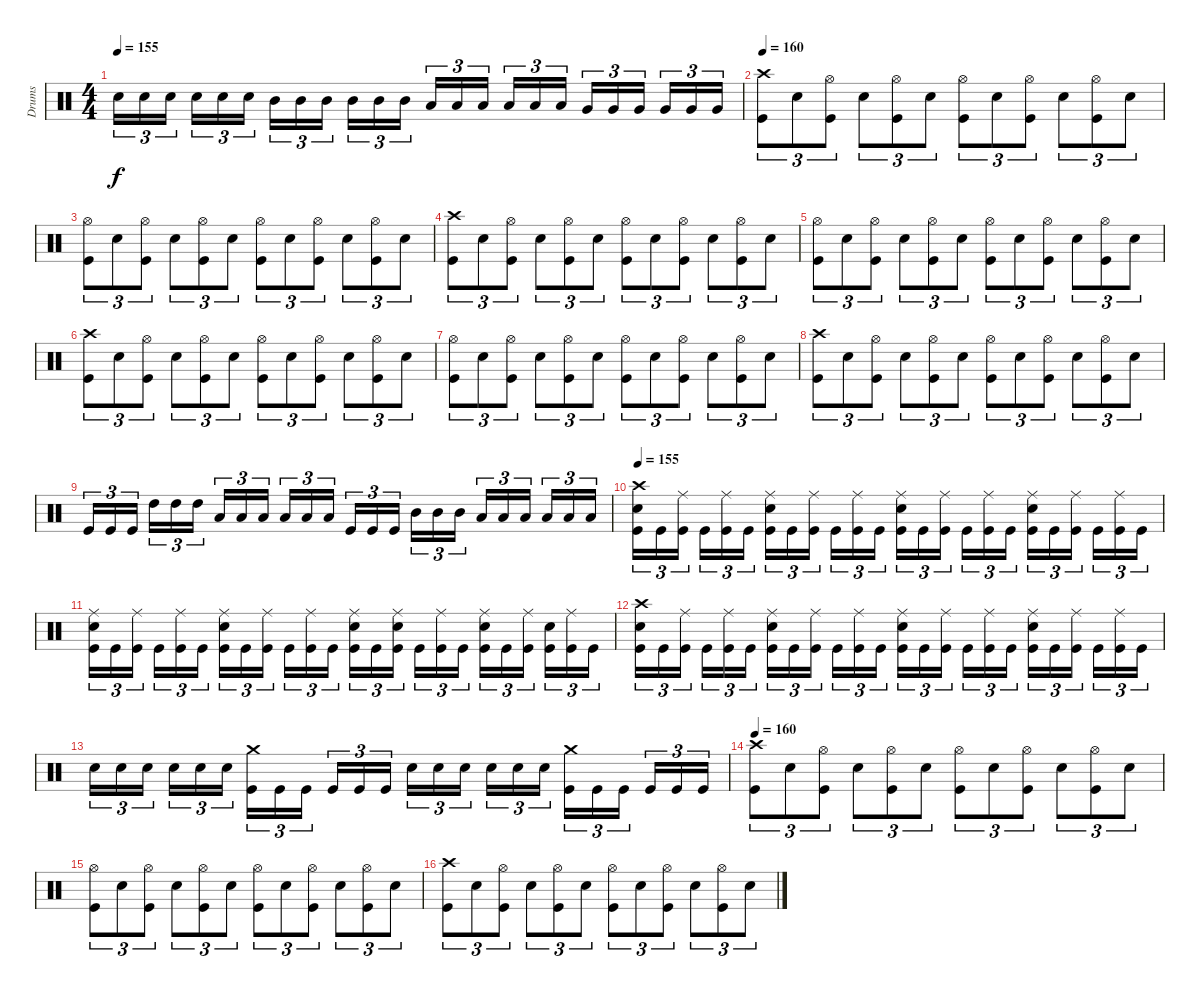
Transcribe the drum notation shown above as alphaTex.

\track ("Drums" "Drums") {instrument percussion}
\staff {score}
\articulation defaults
\ts (4 4)
\tempo 155
\clef neutral
\ks c "Electric Snare (hit)".16{tu (3 2) dy f} "Electric Snare (hit)".16{tu (3 2)} "Electric Snare (hit)".16{tu (3 2)} "Electric Snare (hit)".16{tu (3 2)} "Electric Snare (hit)".16{tu (3 2)} "Electric Snare (hit)".16{tu (3 2)} "Mid Tom (hit)".16{tu (3 2)} "Mid Tom (hit)".16{tu (3 2)} "Mid Tom (hit)".16{tu (3 2)} "Mid Tom (hit)".16{tu (3 2)} "Mid Tom (hit)".16{tu (3 2)} "Mid Tom (hit)".16{tu (3 2)} "Low Tom (hit)".16{tu (3 2)} "Low Tom (hit)".16{tu (3 2)} "Low Tom (hit)".16{tu (3 2)} "Low Tom (hit)".16{tu (3 2)} "Low Tom (hit)".16{tu (3 2)} "Low Tom (hit)".16{tu (3 2)} "Very Low Tom (hit)".16{tu (3 2)} "Very Low Tom (hit)".16{tu (3 2)} "Very Low Tom (hit)".16{tu (3 2)} "Very Low Tom (hit)".16{tu (3 2)} "Very Low Tom (hit)".16{tu (3 2)} "Very Low Tom (hit)".16{tu (3 2)}
|
\tempo 160
("Crash high (hit)" "Kick (hit)").8{tu (3 2)} "Electric Snare (hit)".8{tu (3 2)} ("Hi-Hat (open)" "Kick (hit)").8{tu (3 2)} "Electric Snare (hit)".8{tu (3 2)} ("Hi-Hat (open)" "Kick (hit)").8{tu (3 2)} "Electric Snare (hit)".8{tu (3 2)} ("Hi-Hat (open)" "Kick (hit)").8{tu (3 2)} "Electric Snare (hit)".8{tu (3 2)} ("Hi-Hat (open)" "Kick (hit)").8{tu (3 2)} "Electric Snare (hit)".8{tu (3 2)} ("Hi-Hat (open)" "Kick (hit)").8{tu (3 2)} "Electric Snare (hit)".8{tu (3 2)} |
("Hi-Hat (open)" "Kick (hit)").8{tu (3 2)} "Electric Snare (hit)".8{tu (3 2)} ("Hi-Hat (open)" "Kick (hit)").8{tu (3 2)} "Electric Snare (hit)".8{tu (3 2)} ("Hi-Hat (open)" "Kick (hit)").8{tu (3 2)} "Electric Snare (hit)".8{tu (3 2)} ("Hi-Hat (open)" "Kick (hit)").8{tu (3 2)} "Electric Snare (hit)".8{tu (3 2)} ("Hi-Hat (open)" "Kick (hit)").8{tu (3 2)} "Electric Snare (hit)".8{tu (3 2)} ("Hi-Hat (open)" "Kick (hit)").8{tu (3 2)} "Electric Snare (hit)".8{tu (3 2)} |
("Crash high (hit)" "Kick (hit)").8{tu (3 2)} "Electric Snare (hit)".8{tu (3 2)} ("Hi-Hat (open)" "Kick (hit)").8{tu (3 2)} "Electric Snare (hit)".8{tu (3 2)} ("Hi-Hat (open)" "Kick (hit)").8{tu (3 2)} "Electric Snare (hit)".8{tu (3 2)} ("Hi-Hat (open)" "Kick (hit)").8{tu (3 2)} "Electric Snare (hit)".8{tu (3 2)} ("Hi-Hat (open)" "Kick (hit)").8{tu (3 2)} "Electric Snare (hit)".8{tu (3 2)} ("Hi-Hat (open)" "Kick (hit)").8{tu (3 2)} "Electric Snare (hit)".8{tu (3 2)} |
("Hi-Hat (open)" "Kick (hit)").8{tu (3 2)} "Electric Snare (hit)".8{tu (3 2)} ("Hi-Hat (open)" "Kick (hit)").8{tu (3 2)} "Electric Snare (hit)".8{tu (3 2)} ("Hi-Hat (open)" "Kick (hit)").8{tu (3 2)} "Electric Snare (hit)".8{tu (3 2)} ("Hi-Hat (open)" "Kick (hit)").8{tu (3 2)} "Electric Snare (hit)".8{tu (3 2)} ("Hi-Hat (open)" "Kick (hit)").8{tu (3 2)} "Electric Snare (hit)".8{tu (3 2)} ("Hi-Hat (open)" "Kick (hit)").8{tu (3 2)} "Electric Snare (hit)".8{tu (3 2)} |
("Crash high (hit)" "Kick (hit)").8{tu (3 2)} "Electric Snare (hit)".8{tu (3 2)} ("Hi-Hat (open)" "Kick (hit)").8{tu (3 2)} "Electric Snare (hit)".8{tu (3 2)} ("Hi-Hat (open)" "Kick (hit)").8{tu (3 2)} "Electric Snare (hit)".8{tu (3 2)} ("Hi-Hat (open)" "Kick (hit)").8{tu (3 2)} "Electric Snare (hit)".8{tu (3 2)} ("Hi-Hat (open)" "Kick (hit)").8{tu (3 2)} "Electric Snare (hit)".8{tu (3 2)} ("Hi-Hat (open)" "Kick (hit)").8{tu (3 2)} "Electric Snare (hit)".8{tu (3 2)} |
("Hi-Hat (open)" "Kick (hit)").8{tu (3 2)} "Electric Snare (hit)".8{tu (3 2)} ("Hi-Hat (open)" "Kick (hit)").8{tu (3 2)} "Electric Snare (hit)".8{tu (3 2)} ("Hi-Hat (open)" "Kick (hit)").8{tu (3 2)} "Electric Snare (hit)".8{tu (3 2)} ("Hi-Hat (open)" "Kick (hit)").8{tu (3 2)} "Electric Snare (hit)".8{tu (3 2)} ("Hi-Hat (open)" "Kick (hit)").8{tu (3 2)} "Electric Snare (hit)".8{tu (3 2)} ("Hi-Hat (open)" "Kick (hit)").8{tu (3 2)} "Electric Snare (hit)".8{tu (3 2)} |
("Crash high (hit)" "Kick (hit)").8{tu (3 2)} "Electric Snare (hit)".8{tu (3 2)} ("Hi-Hat (open)" "Kick (hit)").8{tu (3 2)} "Electric Snare (hit)".8{tu (3 2)} ("Hi-Hat (open)" "Kick (hit)").8{tu (3 2)} "Electric Snare (hit)".8{tu (3 2)} ("Hi-Hat (open)" "Kick (hit)").8{tu (3 2)} "Electric Snare (hit)".8{tu (3 2)} ("Hi-Hat (open)" "Kick (hit)").8{tu (3 2)} "Electric Snare (hit)".8{tu (3 2)} ("Hi-Hat (open)" "Kick (hit)").8{tu (3 2)} "Electric Snare (hit)".8{tu (3 2)} |
"Kick (hit)".16{tu (3 2)} "Kick (hit)".16{tu (3 2)} "Kick (hit)".16{tu (3 2)} "High Tom (hit)".16{tu (3 2)} "High Tom (hit)".16{tu (3 2)} "High Tom (hit)".16{tu (3 2)} "Low Tom (hit)".16{tu (3 2)} "Low Tom (hit)".16{tu (3 2)} "Low Tom (hit)".16{tu (3 2)} "Low Tom (hit)".16{tu (3 2)} "Low Tom (hit)".16{tu (3 2)} "Low Tom (hit)".16{tu (3 2)} "Kick (hit)".16{tu (3 2)} "Kick (hit)".16{tu (3 2)} "Kick (hit)".16{tu (3 2)} "Mid Tom (hit)".16{tu (3 2)} "Mid Tom (hit)".16{tu (3 2)} "Mid Tom (hit)".16{tu (3 2)} "Low Tom (hit)".16{tu (3 2)} "Low Tom (hit)".16{tu (3 2)} "Low Tom (hit)".16{tu (3 2)} "Low Tom (hit)".16{tu (3 2)} "Low Tom (hit)".16{tu (3 2)} "Low Tom (hit)".16{tu (3 2)} |
\tempo 155
("Crash high (hit)" "Electric Snare (hit)" "Kick (hit)").16{tu (3 2)} "Kick (hit)".16{tu (3 2)} ("Ride (middle)" "Kick (hit)").16{tu (3 2)} "Kick (hit)".16{tu (3 2)} ("Ride (middle)" "Kick (hit)").16{tu (3 2)} "Kick (hit)".16{tu (3 2)} ("Ride (middle)" "Electric Snare (hit)" "Kick (hit)").16{tu (3 2)} "Kick (hit)".16{tu (3 2)} ("Ride (middle)" "Kick (hit)").16{tu (3 2)} "Kick (hit)".16{tu (3 2)} ("Ride (middle)" "Kick (hit)").16{tu (3 2)} "Kick (hit)".16{tu (3 2)} ("Ride (middle)" "Electric Snare (hit)" "Kick (hit)").16{tu (3 2)} "Kick (hit)".16{tu (3 2)} ("Ride (middle)" "Kick (hit)").16{tu (3 2)} "Kick (hit)".16{tu (3 2)} ("Ride (middle)" "Kick (hit)").16{tu (3 2)} "Kick (hit)".16{tu (3 2)} ("Ride (middle)" "Electric Snare (hit)" "Kick (hit)").16{tu (3 2)} "Kick (hit)".16{tu (3 2)} ("Ride (middle)" "Kick (hit)").16{tu (3 2)} "Kick (hit)".16{tu (3 2)} ("Ride (middle)" "Kick (hit)").16{tu (3 2)} "Kick (hit)".16{tu (3 2)} |
("Ride (middle)" "Electric Snare (hit)" "Kick (hit)").16{tu (3 2)} "Kick (hit)".16{tu (3 2)} ("Ride (middle)" "Kick (hit)").16{tu (3 2)} "Kick (hit)".16{tu (3 2)} ("Ride (middle)" "Kick (hit)").16{tu (3 2)} "Kick (hit)".16{tu (3 2)} ("Ride (middle)" "Electric Snare (hit)" "Kick (hit)").16{tu (3 2)} "Kick (hit)".16{tu (3 2)} ("Ride (middle)" "Kick (hit)").16{tu (3 2)} "Kick (hit)".16{tu (3 2)} ("Ride (middle)" "Kick (hit)").16{tu (3 2)} "Kick (hit)".16{tu (3 2)} ("Ride (middle)" "Electric Snare (hit)" "Kick (hit)").16{tu (3 2)} "Kick (hit)".16{tu (3 2)} ("Ride (middle)" "Electric Snare (hit)" "Kick (hit)").16{tu (3 2)} "Kick (hit)".16{tu (3 2)} ("Ride (middle)" "Kick (hit)").16{tu (3 2)} "Kick (hit)".16{tu (3 2)} ("Ride (middle)" "Electric Snare (hit)" "Kick (hit)").16{tu (3 2)} "Kick (hit)".16{tu (3 2)} ("Ride (middle)" "Kick (hit)").16{tu (3 2)} ("Electric Snare (hit)" "Kick (hit)").16{tu (3 2)} ("Ride (middle)" "Kick (hit)").16{tu (3 2)} "Kick (hit)".16{tu (3 2)} |
("Crash high (hit)" "Electric Snare (hit)" "Kick (hit)").16{tu (3 2)} "Kick (hit)".16{tu (3 2)} ("Ride (middle)" "Kick (hit)").16{tu (3 2)} "Kick (hit)".16{tu (3 2)} ("Ride (middle)" "Kick (hit)").16{tu (3 2)} "Kick (hit)".16{tu (3 2)} ("Ride (middle)" "Electric Snare (hit)" "Kick (hit)").16{tu (3 2)} "Kick (hit)".16{tu (3 2)} ("Ride (middle)" "Kick (hit)").16{tu (3 2)} "Kick (hit)".16{tu (3 2)} ("Ride (middle)" "Kick (hit)").16{tu (3 2)} "Kick (hit)".16{tu (3 2)} ("Ride (middle)" "Electric Snare (hit)" "Kick (hit)").16{tu (3 2)} "Kick (hit)".16{tu (3 2)} ("Ride (middle)" "Kick (hit)").16{tu (3 2)} "Kick (hit)".16{tu (3 2)} ("Ride (middle)" "Kick (hit)").16{tu (3 2)} "Kick (hit)".16{tu (3 2)} ("Ride (middle)" "Electric Snare (hit)" "Kick (hit)").16{tu (3 2)} "Kick (hit)".16{tu (3 2)} ("Ride (middle)" "Kick (hit)").16{tu (3 2)} "Kick (hit)".16{tu (3 2)} ("Ride (middle)" "Kick (hit)").16{tu (3 2)} "Kick (hit)".16{tu (3 2)} |
"Electric Snare (hit)".16{tu (3 2)} "Electric Snare (hit)".16{tu (3 2)} "Electric Snare (hit)".16{tu (3 2)} "Electric Snare (hit)".16{tu (3 2)} "Electric Snare (hit)".16{tu (3 2)} "Electric Snare (hit)".16{tu (3 2)} ("Crash medium (hit)" "Kick (hit)").16{tu (3 2)} "Kick (hit)".16{tu (3 2)} "Kick (hit)".16{tu (3 2)} "Kick (hit)".16{tu (3 2)} "Kick (hit)".16{tu (3 2)} "Kick (hit)".16{tu (3 2)} "Electric Snare (hit)".16{tu (3 2)} "Electric Snare (hit)".16{tu (3 2)} "Electric Snare (hit)".16{tu (3 2)} "Electric Snare (hit)".16{tu (3 2)} "Electric Snare (hit)".16{tu (3 2)} "Electric Snare (hit)".16{tu (3 2)} ("Crash medium (hit)" "Kick (hit)").16{tu (3 2)} "Kick (hit)".16{tu (3 2)} "Kick (hit)".16{tu (3 2)} "Kick (hit)".16{tu (3 2)} "Kick (hit)".16{tu (3 2)} "Kick (hit)".16{tu (3 2)} |
\tempo 160
("Crash high (hit)" "Kick (hit)").8{tu (3 2)} "Electric Snare (hit)".8{tu (3 2)} ("Hi-Hat (open)" "Kick (hit)").8{tu (3 2)} "Electric Snare (hit)".8{tu (3 2)} ("Hi-Hat (open)" "Kick (hit)").8{tu (3 2)} "Electric Snare (hit)".8{tu (3 2)} ("Hi-Hat (open)" "Kick (hit)").8{tu (3 2)} "Electric Snare (hit)".8{tu (3 2)} ("Hi-Hat (open)" "Kick (hit)").8{tu (3 2)} "Electric Snare (hit)".8{tu (3 2)} ("Hi-Hat (open)" "Kick (hit)").8{tu (3 2)} "Electric Snare (hit)".8{tu (3 2)} |
("Hi-Hat (open)" "Kick (hit)").8{tu (3 2)} "Electric Snare (hit)".8{tu (3 2)} ("Hi-Hat (open)" "Kick (hit)").8{tu (3 2)} "Electric Snare (hit)".8{tu (3 2)} ("Hi-Hat (open)" "Kick (hit)").8{tu (3 2)} "Electric Snare (hit)".8{tu (3 2)} ("Hi-Hat (open)" "Kick (hit)").8{tu (3 2)} "Electric Snare (hit)".8{tu (3 2)} ("Hi-Hat (open)" "Kick (hit)").8{tu (3 2)} "Electric Snare (hit)".8{tu (3 2)} ("Hi-Hat (open)" "Kick (hit)").8{tu (3 2)} "Electric Snare (hit)".8{tu (3 2)} |
("Crash high (hit)" "Kick (hit)").8{tu (3 2)} "Electric Snare (hit)".8{tu (3 2)} ("Hi-Hat (open)" "Kick (hit)").8{tu (3 2)} "Electric Snare (hit)".8{tu (3 2)} ("Hi-Hat (open)" "Kick (hit)").8{tu (3 2)} "Electric Snare (hit)".8{tu (3 2)} ("Hi-Hat (open)" "Kick (hit)").8{tu (3 2)} "Electric Snare (hit)".8{tu (3 2)} ("Hi-Hat (open)" "Kick (hit)").8{tu (3 2)} "Electric Snare (hit)".8{tu (3 2)} ("Hi-Hat (open)" "Kick (hit)").8{tu (3 2)} "Electric Snare (hit)".8{tu (3 2)}
